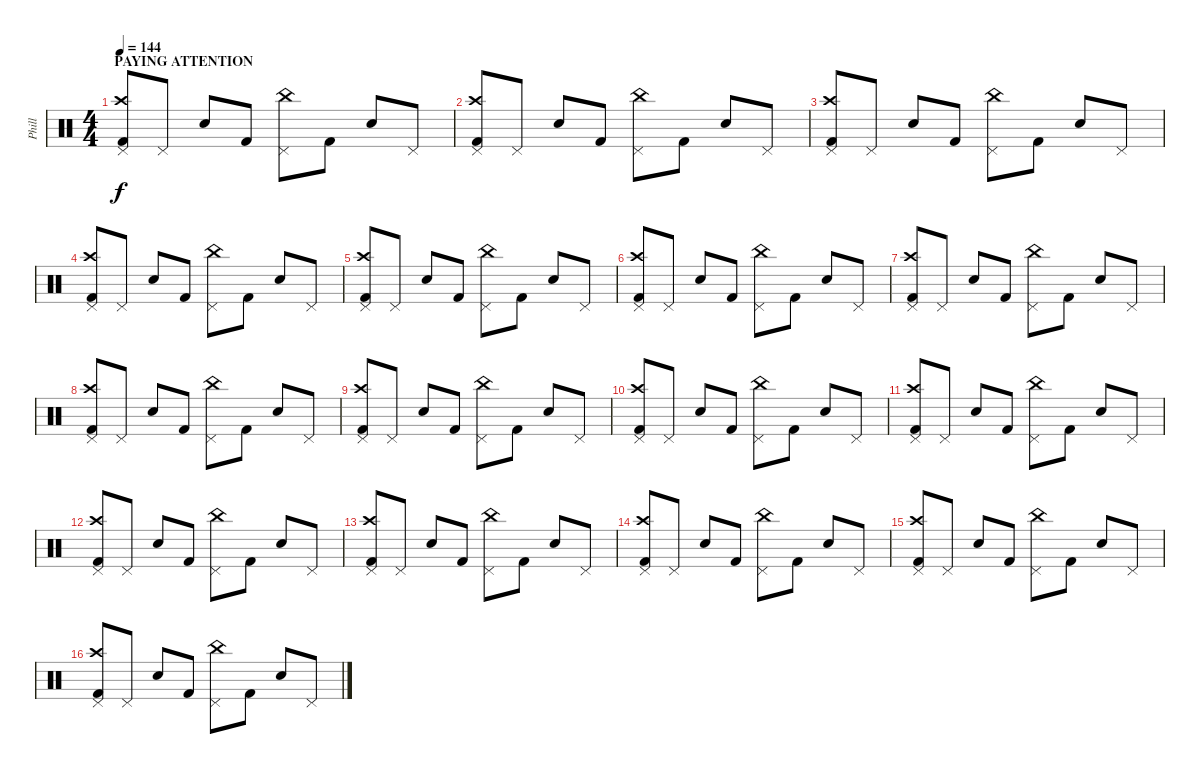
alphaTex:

\track ("Phill" "Phill") {instrument percussion}
\staff {score}
\articulation defaults
\ts (4 4)
\section ("" "PAYING ATTENTION")
\tempo 144
\clef neutral
\ks c
("Pedal Hi-Hat (hit)" "Crash high (hit)" "Kick (hit) 2").8{dy f} "Pedal Hi-Hat (hit)".8 "Snare (hit) 2".8 "Kick (hit) 2".8 ("Pedal Hi-Hat (hit)" "China (hit)").8 "Kick (hit) 2".8 "Snare (hit) 2".8 "Pedal Hi-Hat (hit)".8 |
("Pedal Hi-Hat (hit)" "Crash high (hit)" "Kick (hit) 2").8 "Pedal Hi-Hat (hit)".8 "Snare (hit) 2".8 "Kick (hit) 2".8 ("Pedal Hi-Hat (hit)" "China (hit)").8 "Kick (hit) 2".8 "Snare (hit) 2".8 "Pedal Hi-Hat (hit)".8 |
("Pedal Hi-Hat (hit)" "Crash high (hit)" "Kick (hit) 2").8 "Pedal Hi-Hat (hit)".8 "Snare (hit) 2".8 "Kick (hit) 2".8 ("Pedal Hi-Hat (hit)" "China (hit)").8 "Kick (hit) 2".8 "Snare (hit) 2".8 "Pedal Hi-Hat (hit)".8 |
("Pedal Hi-Hat (hit)" "Crash high (hit)" "Kick (hit) 2").8 "Pedal Hi-Hat (hit)".8 "Snare (hit) 2".8 "Kick (hit) 2".8 ("Pedal Hi-Hat (hit)" "China (hit)").8 "Kick (hit) 2".8 "Snare (hit) 2".8 "Pedal Hi-Hat (hit)".8 |
("Pedal Hi-Hat (hit)" "Crash high (hit)" "Kick (hit) 2").8 "Pedal Hi-Hat (hit)".8 "Snare (hit) 2".8 "Kick (hit) 2".8 ("Pedal Hi-Hat (hit)" "China (hit)").8 "Kick (hit) 2".8 "Snare (hit) 2".8 "Pedal Hi-Hat (hit)".8 |
("Pedal Hi-Hat (hit)" "Crash high (hit)" "Kick (hit) 2").8 "Pedal Hi-Hat (hit)".8 "Snare (hit) 2".8 "Kick (hit) 2".8 ("Pedal Hi-Hat (hit)" "China (hit)").8 "Kick (hit) 2".8 "Snare (hit) 2".8 "Pedal Hi-Hat (hit)".8 |
("Pedal Hi-Hat (hit)" "Crash high (hit)" "Kick (hit) 2").8 "Pedal Hi-Hat (hit)".8 "Snare (hit) 2".8 "Kick (hit) 2".8 ("Pedal Hi-Hat (hit)" "China (hit)").8 "Kick (hit) 2".8 "Snare (hit) 2".8 "Pedal Hi-Hat (hit)".8 |
("Pedal Hi-Hat (hit)" "Crash high (hit)" "Kick (hit) 2").8 "Pedal Hi-Hat (hit)".8 "Snare (hit) 2".8 "Kick (hit) 2".8 ("Pedal Hi-Hat (hit)" "China (hit)").8 "Kick (hit) 2".8 "Snare (hit) 2".8 "Pedal Hi-Hat (hit)".8 |
("Pedal Hi-Hat (hit)" "Crash high (hit)" "Kick (hit) 2").8 "Pedal Hi-Hat (hit)".8 "Snare (hit) 2".8 "Kick (hit) 2".8 ("Pedal Hi-Hat (hit)" "China (hit)").8 "Kick (hit) 2".8 "Snare (hit) 2".8 "Pedal Hi-Hat (hit)".8 |
("Pedal Hi-Hat (hit)" "Crash high (hit)" "Kick (hit) 2").8 "Pedal Hi-Hat (hit)".8 "Snare (hit) 2".8 "Kick (hit) 2".8 ("Pedal Hi-Hat (hit)" "China (hit)").8 "Kick (hit) 2".8 "Snare (hit) 2".8 "Pedal Hi-Hat (hit)".8 |
("Pedal Hi-Hat (hit)" "Crash high (hit)" "Kick (hit) 2").8 "Pedal Hi-Hat (hit)".8 "Snare (hit) 2".8 "Kick (hit) 2".8 ("Pedal Hi-Hat (hit)" "China (hit)").8 "Kick (hit) 2".8 "Snare (hit) 2".8 "Pedal Hi-Hat (hit)".8 |
("Pedal Hi-Hat (hit)" "Crash high (hit)" "Kick (hit) 2").8 "Pedal Hi-Hat (hit)".8 "Snare (hit) 2".8 "Kick (hit) 2".8 ("Pedal Hi-Hat (hit)" "China (hit)").8 "Kick (hit) 2".8 "Snare (hit) 2".8 "Pedal Hi-Hat (hit)".8 |
("Pedal Hi-Hat (hit)" "Crash high (hit)" "Kick (hit) 2").8 "Pedal Hi-Hat (hit)".8 "Snare (hit) 2".8 "Kick (hit) 2".8 ("Pedal Hi-Hat (hit)" "China (hit)").8 "Kick (hit) 2".8 "Snare (hit) 2".8 "Pedal Hi-Hat (hit)".8 |
("Pedal Hi-Hat (hit)" "Crash high (hit)" "Kick (hit) 2").8 "Pedal Hi-Hat (hit)".8 "Snare (hit) 2".8 "Kick (hit) 2".8 ("Pedal Hi-Hat (hit)" "China (hit)").8 "Kick (hit) 2".8 "Snare (hit) 2".8 "Pedal Hi-Hat (hit)".8 |
("Pedal Hi-Hat (hit)" "Crash high (hit)" "Kick (hit) 2").8 "Pedal Hi-Hat (hit)".8 "Snare (hit) 2".8 "Kick (hit) 2".8 ("Pedal Hi-Hat (hit)" "China (hit)").8 "Kick (hit) 2".8 "Snare (hit) 2".8 "Pedal Hi-Hat (hit)".8 |
("Pedal Hi-Hat (hit)" "Crash high (hit)" "Kick (hit) 2").8 "Pedal Hi-Hat (hit)".8 "Snare (hit) 2".8 "Kick (hit) 2".8 ("Pedal Hi-Hat (hit)" "China (hit)").8 "Kick (hit) 2".8 "Snare (hit) 2".8 "Pedal Hi-Hat (hit)".8
